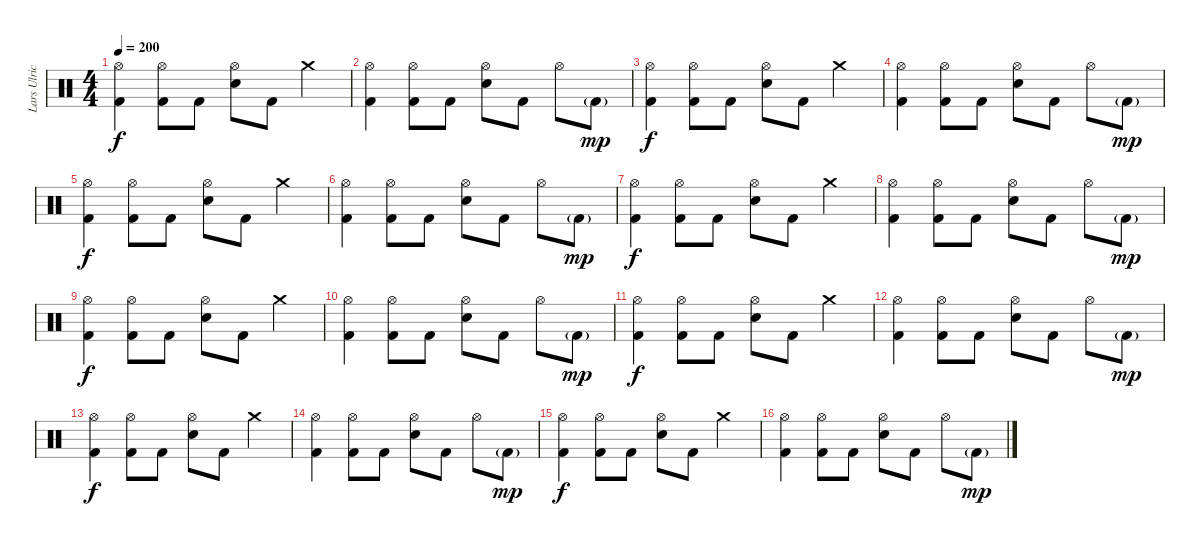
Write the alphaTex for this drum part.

\track ("Lars Ulrich" "Lars Ulric") {instrument percussion}
\staff {score}
\articulation defaults
\ts (4 4)
\tempo 200
\clef neutral
\ks c
("Hi-Hat (open)" "Kick (hit) 2").4{dy f} ("Hi-Hat (open)" "Kick (hit) 2").8 "Kick (hit) 2".8 ("Hi-Hat (open)" "Electric Snare (hit)").8 "Kick (hit) 2".8 "Crash medium (hit)".4 |
("Hi-Hat (open)" "Kick (hit) 2").4 ("Hi-Hat (open)" "Kick (hit) 2").8 "Kick (hit) 2".8 ("Hi-Hat (open)" "Electric Snare (hit)").8 "Kick (hit) 2".8 "Hi-Hat (open)".8 "Kick (hit) 2"{g}.8{dy mp} |
("Hi-Hat (open)" "Kick (hit) 2").4{dy f} ("Hi-Hat (open)" "Kick (hit) 2").8 "Kick (hit) 2".8 ("Hi-Hat (open)" "Electric Snare (hit)").8 "Kick (hit) 2".8 "Crash medium (hit)".4 |
("Hi-Hat (open)" "Kick (hit) 2").4 ("Hi-Hat (open)" "Kick (hit) 2").8 "Kick (hit) 2".8 ("Hi-Hat (open)" "Electric Snare (hit)").8 "Kick (hit) 2".8 "Hi-Hat (open)".8 "Kick (hit) 2"{g}.8{dy mp} |
("Hi-Hat (open)" "Kick (hit) 2").4{dy f} ("Hi-Hat (open)" "Kick (hit) 2").8 "Kick (hit) 2".8 ("Hi-Hat (open)" "Electric Snare (hit)").8 "Kick (hit) 2".8 "Crash medium (hit)".4 |
("Hi-Hat (open)" "Kick (hit) 2").4 ("Hi-Hat (open)" "Kick (hit) 2").8 "Kick (hit) 2".8 ("Hi-Hat (open)" "Electric Snare (hit)").8 "Kick (hit) 2".8 "Hi-Hat (open)".8 "Kick (hit) 2"{g}.8{dy mp} |
("Hi-Hat (open)" "Kick (hit) 2").4{dy f} ("Hi-Hat (open)" "Kick (hit) 2").8 "Kick (hit) 2".8 ("Hi-Hat (open)" "Electric Snare (hit)").8 "Kick (hit) 2".8 "Crash medium (hit)".4 |
("Hi-Hat (open)" "Kick (hit) 2").4 ("Hi-Hat (open)" "Kick (hit) 2").8 "Kick (hit) 2".8 ("Hi-Hat (open)" "Electric Snare (hit)").8 "Kick (hit) 2".8 "Hi-Hat (open)".8 "Kick (hit) 2"{g}.8{dy mp} |
("Hi-Hat (open)" "Kick (hit) 2").4{dy f} ("Hi-Hat (open)" "Kick (hit) 2").8 "Kick (hit) 2".8 ("Hi-Hat (open)" "Electric Snare (hit)").8 "Kick (hit) 2".8 "Crash medium (hit)".4 |
("Hi-Hat (open)" "Kick (hit) 2").4 ("Hi-Hat (open)" "Kick (hit) 2").8 "Kick (hit) 2".8 ("Hi-Hat (open)" "Electric Snare (hit)").8 "Kick (hit) 2".8 "Hi-Hat (open)".8 "Kick (hit) 2"{g}.8{dy mp} |
("Hi-Hat (open)" "Kick (hit) 2").4{dy f} ("Hi-Hat (open)" "Kick (hit) 2").8 "Kick (hit) 2".8 ("Hi-Hat (open)" "Electric Snare (hit)").8 "Kick (hit) 2".8 "Crash medium (hit)".4 |
("Hi-Hat (open)" "Kick (hit) 2").4 ("Hi-Hat (open)" "Kick (hit) 2").8 "Kick (hit) 2".8 ("Hi-Hat (open)" "Electric Snare (hit)").8 "Kick (hit) 2".8 "Hi-Hat (open)".8 "Kick (hit) 2"{g}.8{dy mp} |
("Hi-Hat (open)" "Kick (hit) 2").4{dy f} ("Hi-Hat (open)" "Kick (hit) 2").8 "Kick (hit) 2".8 ("Hi-Hat (open)" "Electric Snare (hit)").8 "Kick (hit) 2".8 "Crash medium (hit)".4 |
("Hi-Hat (open)" "Kick (hit) 2").4 ("Hi-Hat (open)" "Kick (hit) 2").8 "Kick (hit) 2".8 ("Hi-Hat (open)" "Electric Snare (hit)").8 "Kick (hit) 2".8 "Hi-Hat (open)".8 "Kick (hit) 2"{g}.8{dy mp} |
("Hi-Hat (open)" "Kick (hit) 2").4{dy f} ("Hi-Hat (open)" "Kick (hit) 2").8 "Kick (hit) 2".8 ("Hi-Hat (open)" "Electric Snare (hit)").8 "Kick (hit) 2".8 "Crash medium (hit)".4 |
("Hi-Hat (open)" "Kick (hit) 2").4 ("Hi-Hat (open)" "Kick (hit) 2").8 "Kick (hit) 2".8 ("Hi-Hat (open)" "Electric Snare (hit)").8 "Kick (hit) 2".8 "Hi-Hat (open)".8 "Kick (hit) 2"{g}.8{dy mp}
